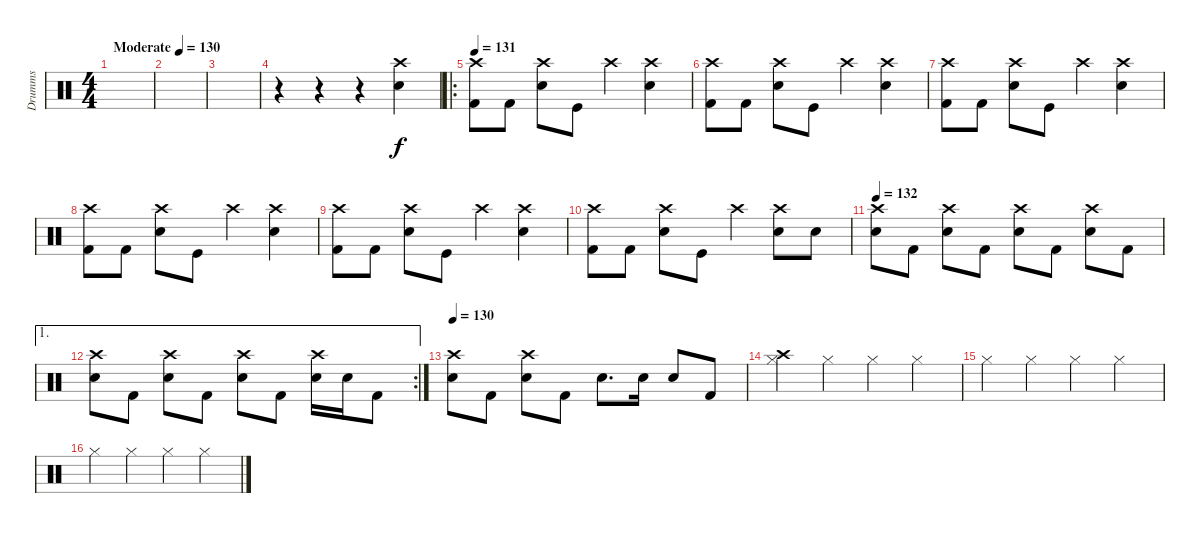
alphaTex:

\track ("Drumms" "Drumms") {instrument percussion}
\staff {score}
\articulation defaults
\ts (4 4)
\tempo (130 "Moderate")
\clef neutral
\ks c
|
|
|
r.4 r.4 r.4 ("Snare (hit) 2" "Crash high (hit)").4 |
\ro
\tempo 131
("Crash high (hit)" "Kick (hit) 2").8 "Kick (hit) 2".8 ("Snare (hit) 2" "Crash high (hit)").8 "Kick (hit)".8 "Crash high (hit)".4 ("Snare (hit) 2" "Crash high (hit)").4 |
("Crash high (hit)" "Kick (hit) 2").8 "Kick (hit) 2".8 ("Snare (hit) 2" "Crash high (hit)").8 "Kick (hit)".8 "Crash high (hit)".4 ("Snare (hit) 2" "Crash high (hit)").4 |
("Crash high (hit)" "Kick (hit) 2").8 "Kick (hit) 2".8 ("Snare (hit) 2" "Crash high (hit)").8 "Kick (hit)".8 "Crash high (hit)".4 ("Snare (hit) 2" "Crash high (hit)").4 |
("Crash high (hit)" "Kick (hit) 2").8 "Kick (hit) 2".8 ("Snare (hit) 2" "Crash high (hit)").8 "Kick (hit)".8 "Crash high (hit)".4 ("Snare (hit) 2" "Crash high (hit)").4 |
("Crash high (hit)" "Kick (hit) 2").8 "Kick (hit) 2".8 ("Snare (hit) 2" "Crash high (hit)").8 "Kick (hit)".8 "Crash high (hit)".4 ("Snare (hit) 2" "Crash high (hit)").4 |
("Crash high (hit)" "Kick (hit) 2").8 "Kick (hit) 2".8 ("Snare (hit) 2" "Crash high (hit)").8 "Kick (hit)".8 "Crash high (hit)".4 ("Snare (hit) 2" "Crash high (hit)").8 "Snare (hit) 2".8 |
\tempo 132
("Crash high (hit)" "Snare (hit) 2").8 "Kick (hit) 2".8 ("Crash high (hit)" "Snare (hit) 2").8 "Kick (hit) 2".8 ("Crash high (hit)" "Snare (hit) 2").8 "Kick (hit) 2".8 ("Crash high (hit)" "Snare (hit) 2").8 "Kick (hit) 2".8 |
\ae 1
\rc 2
("Crash high (hit)" "Snare (hit) 2").8 "Kick (hit) 2".8 ("Crash high (hit)" "Snare (hit) 2").8 "Kick (hit) 2".8 ("Crash high (hit)" "Snare (hit) 2").8 "Kick (hit) 2".8 ("Crash high (hit)" "Snare (hit) 2").16 "Snare (hit) 2".16 "Kick (hit) 2".8 |
\tempo 130
("Crash high (hit)" "Snare (hit) 2").8 "Kick (hit) 2".8 ("Crash high (hit)" "Snare (hit) 2").8 "Kick (hit) 2".8 "Snare (hit) 2".8{d} "Snare (hit) 2".16 "Snare (hit) 2".8 "Kick (hit) 2".8 |
("Crash high (hit)" "Hi-Hat (closed)").4 "Hi-Hat (closed)".4 "Hi-Hat (closed)".4 "Hi-Hat (closed)".4 |
"Hi-Hat (closed)".4 "Hi-Hat (closed)".4 "Hi-Hat (closed)".4 "Hi-Hat (closed)".4 |
"Hi-Hat (closed)".4 "Hi-Hat (closed)".4 "Hi-Hat (closed)".4 "Hi-Hat (closed)".4
